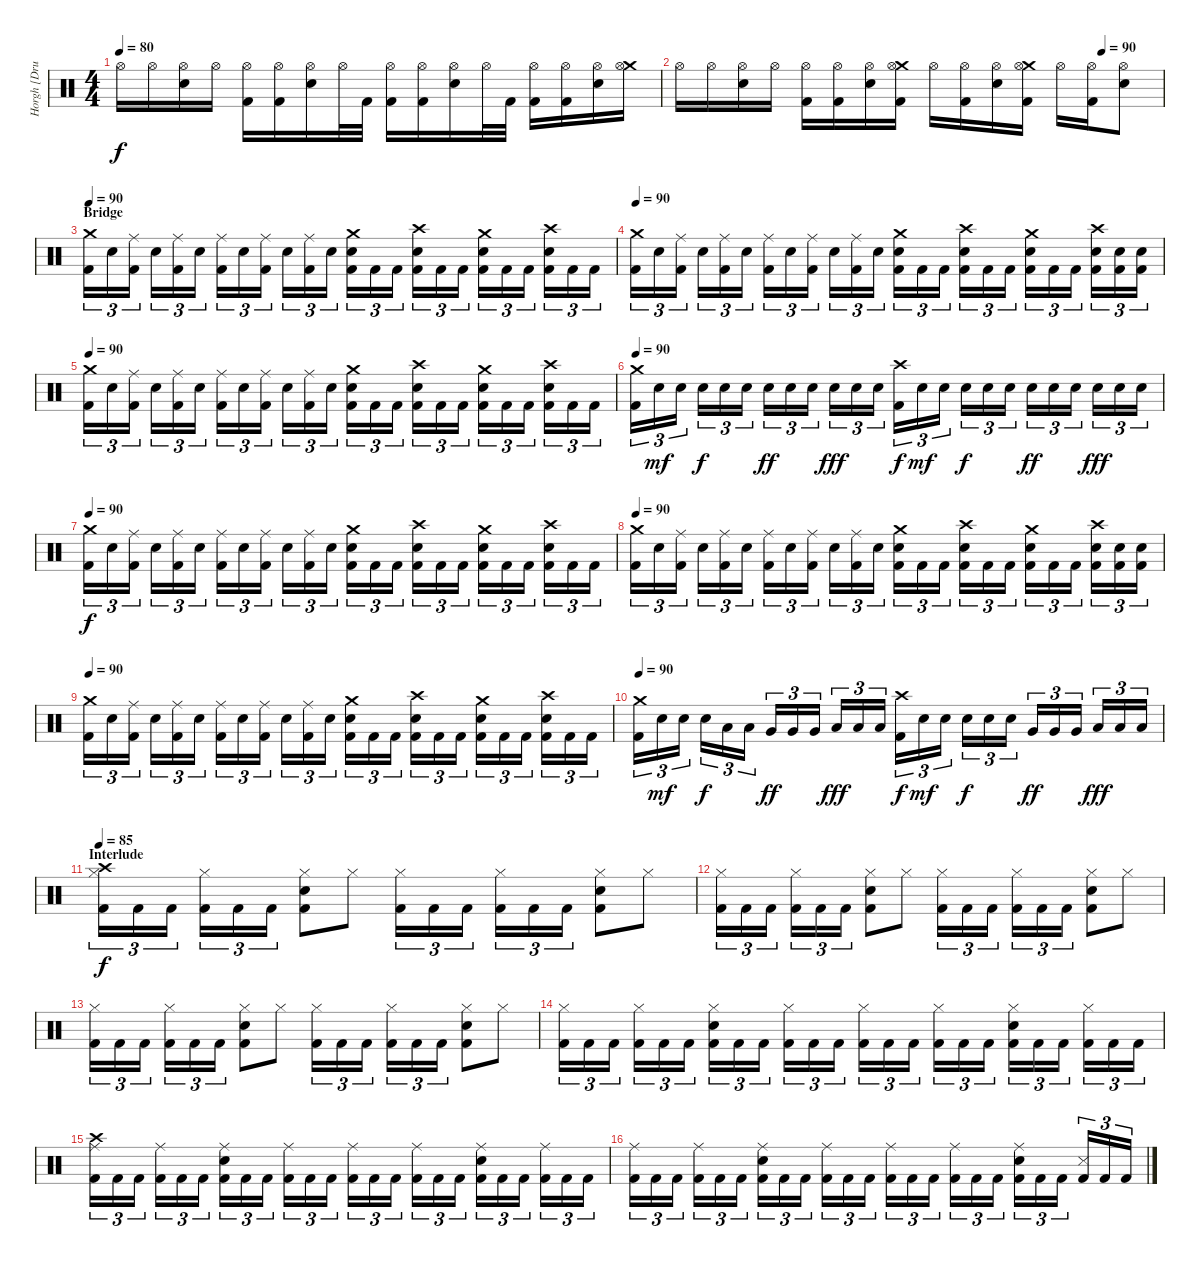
\track ("Horgh [Drums]" "Horgh [Dru") {instrument percussion}
\staff {score}
\articulation defaults
\ts (4 4)
\tempo 80
\clef neutral
\ks c "Hi-Hat (open)".16{dy f} "Hi-Hat (open)".16
("Hi-Hat (open)" "Snare (hit) 2").16 "Hi-Hat (open)".16 ("Hi-Hat (open)" "Kick (hit) 2").16 ("Hi-Hat (open)" "Kick (hit) 2").16 ("Hi-Hat (open)" "Snare (hit) 2").16 "Hi-Hat (open)".32 "Kick (hit) 2".32 ("Hi-Hat (open)" "Kick (hit) 2").16 ("Hi-Hat (open)" "Kick (hit) 2").16 ("Hi-Hat (open)" "Snare (hit) 2").16 "Hi-Hat (open)".32 "Kick (hit) 2".32 ("Hi-Hat (open)" "Kick (hit) 2").16 ("Hi-Hat (open)" "Kick (hit) 2").16 ("Hi-Hat (open)" "Snare (hit) 2").16 ("Crash medium (hit)" "Hi-Hat (open)").16 |
\tempo (90 0.875)
"Hi-Hat (open)".16 "Hi-Hat (open)".16 ("Hi-Hat (open)" "Snare (hit) 2").16 "Hi-Hat (open)".16 ("Hi-Hat (open)" "Kick (hit) 2").16 ("Hi-Hat (open)" "Kick (hit) 2").16 ("Hi-Hat (open)" "Snare (hit) 2").16 ("Crash medium (hit)" "Hi-Hat (open)" "Kick (hit) 2").16 "Hi-Hat (open)".16 ("Hi-Hat (open)" "Kick (hit) 2").16 ("Hi-Hat (open)" "Snare (hit) 2").16 ("Crash medium (hit)" "Hi-Hat (open)" "Kick (hit) 2").16 "Hi-Hat (open)".16 ("Hi-Hat (open)" "Kick (hit) 2").16 ("Hi-Hat (open)" "Snare (hit) 2").8 |
\section ("" "Bridge")
\tempo 90
("Crash medium (hit)" "Kick (hit) 2").16{tu (3 2)} "Snare (hit) 2".16{tu (3 2)} ("Ride (middle)" "Kick (hit) 2").16{tu (3 2)} "Snare (hit) 2".16{tu (3 2)} ("Ride (middle)" "Kick (hit) 2").16{tu (3 2)} "Snare (hit) 2".16{tu (3 2)} ("Ride (middle)" "Kick (hit) 2").16{tu (3 2)} "Snare (hit) 2".16{tu (3 2)} ("Ride (middle)" "Kick (hit) 2").16{tu (3 2)} "Snare (hit) 2".16{tu (3 2)} ("Ride (middle)" "Kick (hit) 2").16{tu (3 2)} "Snare (hit) 2".16{tu (3 2)} ("Crash medium (hit)" "Snare (hit) 2" "Kick (hit) 2").16{tu (3 2)} "Kick (hit) 2".16{tu (3 2)} "Kick (hit) 2".16{tu (3 2)} ("Crash high (hit)" "Snare (hit) 2" "Kick (hit) 2").16{tu (3 2)} "Kick (hit) 2".16{tu (3 2)} "Kick (hit) 2".16{tu (3 2)} ("Crash medium (hit)" "Snare (hit) 2" "Kick (hit) 2").16{tu (3 2)} "Kick (hit) 2".16{tu (3 2)} "Kick (hit) 2".16{tu (3 2)} ("Crash high (hit)" "Snare (hit) 2" "Kick (hit) 2").16{tu (3 2)} "Kick (hit) 2".16{tu (3 2)} "Kick (hit) 2".16{tu (3 2)} |
\tempo 90
("Crash medium (hit)" "Kick (hit) 2").16{tu (3 2)} "Snare (hit) 2".16{tu (3 2)} ("Ride (middle)" "Kick (hit) 2").16{tu (3 2)} "Snare (hit) 2".16{tu (3 2)} ("Ride (middle)" "Kick (hit) 2").16{tu (3 2)} "Snare (hit) 2".16{tu (3 2)} ("Ride (middle)" "Kick (hit) 2").16{tu (3 2)} "Snare (hit) 2".16{tu (3 2)} ("Ride (middle)" "Kick (hit) 2").16{tu (3 2)} "Snare (hit) 2".16{tu (3 2)} ("Ride (middle)" "Kick (hit) 2").16{tu (3 2)} "Snare (hit) 2".16{tu (3 2)} ("Crash medium (hit)" "Snare (hit) 2" "Kick (hit) 2").16{tu (3 2)} "Kick (hit) 2".16{tu (3 2)} "Kick (hit) 2".16{tu (3 2)} ("Crash high (hit)" "Snare (hit) 2" "Kick (hit) 2").16{tu (3 2)} "Kick (hit) 2".16{tu (3 2)} "Kick (hit) 2".16{tu (3 2)} ("Crash medium (hit)" "Snare (hit) 2" "Kick (hit) 2").16{tu (3 2)} "Kick (hit) 2".16{tu (3 2)} "Kick (hit) 2".16{tu (3 2)} ("Crash high (hit)" "Snare (hit) 2" "Kick (hit) 2").16{tu (3 2)} ("Snare (hit) 2" "Kick (hit) 2").16{tu (3 2)} ("Snare (hit) 2" "Kick (hit) 2").16{tu (3 2)} |
\tempo 90
("Crash medium (hit)" "Kick (hit) 2").16{tu (3 2)} "Snare (hit) 2".16{tu (3 2)} ("Ride (middle)" "Kick (hit) 2").16{tu (3 2)} "Snare (hit) 2".16{tu (3 2)} ("Ride (middle)" "Kick (hit) 2").16{tu (3 2)} "Snare (hit) 2".16{tu (3 2)} ("Ride (middle)" "Kick (hit) 2").16{tu (3 2)} "Snare (hit) 2".16{tu (3 2)} ("Ride (middle)" "Kick (hit) 2").16{tu (3 2)} "Snare (hit) 2".16{tu (3 2)} ("Ride (middle)" "Kick (hit) 2").16{tu (3 2)} "Snare (hit) 2".16{tu (3 2)} ("Crash medium (hit)" "Snare (hit) 2" "Kick (hit) 2").16{tu (3 2)} "Kick (hit) 2".16{tu (3 2)} "Kick (hit) 2".16{tu (3 2)} ("Crash high (hit)" "Snare (hit) 2" "Kick (hit) 2").16{tu (3 2)} "Kick (hit) 2".16{tu (3 2)} "Kick (hit) 2".16{tu (3 2)} ("Crash medium (hit)" "Snare (hit) 2" "Kick (hit) 2").16{tu (3 2)} "Kick (hit) 2".16{tu (3 2)} "Kick (hit) 2".16{tu (3 2)} ("Crash high (hit)" "Snare (hit) 2" "Kick (hit) 2").16{tu (3 2)} "Kick (hit) 2".16{tu (3 2)} "Kick (hit) 2".16{tu (3 2)} |
\tempo 90
("Crash medium (hit)" "Kick (hit) 2").16{tu (3 2)} "Snare (hit) 2".16{tu (3 2) dy mf} "Snare (hit) 2".16{tu (3 2)} "Snare (hit) 2".16{tu (3 2) dy f} "Snare (hit) 2".16{tu (3 2)} "Snare (hit) 2".16{tu (3 2)} "Snare (hit) 2".16{tu (3 2) dy ff} "Snare (hit) 2".16{tu (3 2)} "Snare (hit) 2".16{tu (3 2)} "Snare (hit) 2".16{tu (3 2) dy fff} "Snare (hit) 2".16{tu (3 2)} "Snare (hit) 2".16{tu (3 2)} ("Crash high (hit)" "Kick (hit) 2").16{tu (3 2) dy f} "Snare (hit) 2".16{tu (3 2) dy mf} "Snare (hit) 2".16{tu (3 2)} "Snare (hit) 2".16{tu (3 2) dy f} "Snare (hit) 2".16{tu (3 2)} "Snare (hit) 2".16{tu (3 2)} "Snare (hit) 2".16{tu (3 2) dy ff} "Snare (hit) 2".16{tu (3 2)} "Snare (hit) 2".16{tu (3 2)} "Snare (hit) 2".16{tu (3 2) dy fff} "Snare (hit) 2".16{tu (3 2)} "Snare (hit) 2".16{tu (3 2)} |
\tempo 90
("Crash medium (hit)" "Kick (hit) 2").16{tu (3 2) dy f} "Snare (hit) 2".16{tu (3 2)} ("Ride (middle)" "Kick (hit) 2").16{tu (3 2)} "Snare (hit) 2".16{tu (3 2)} ("Ride (middle)" "Kick (hit) 2").16{tu (3 2)} "Snare (hit) 2".16{tu (3 2)} ("Ride (middle)" "Kick (hit) 2").16{tu (3 2)} "Snare (hit) 2".16{tu (3 2)} ("Ride (middle)" "Kick (hit) 2").16{tu (3 2)} "Snare (hit) 2".16{tu (3 2)} ("Ride (middle)" "Kick (hit) 2").16{tu (3 2)} "Snare (hit) 2".16{tu (3 2)} ("Crash medium (hit)" "Snare (hit) 2" "Kick (hit) 2").16{tu (3 2)} "Kick (hit) 2".16{tu (3 2)} "Kick (hit) 2".16{tu (3 2)} ("Crash high (hit)" "Snare (hit) 2" "Kick (hit) 2").16{tu (3 2)} "Kick (hit) 2".16{tu (3 2)} "Kick (hit) 2".16{tu (3 2)} ("Crash medium (hit)" "Snare (hit) 2" "Kick (hit) 2").16{tu (3 2)} "Kick (hit) 2".16{tu (3 2)} "Kick (hit) 2".16{tu (3 2)} ("Crash high (hit)" "Snare (hit) 2" "Kick (hit) 2").16{tu (3 2)} "Kick (hit) 2".16{tu (3 2)} "Kick (hit) 2".16{tu (3 2)} |
\tempo 90
("Crash medium (hit)" "Kick (hit) 2").16{tu (3 2)} "Snare (hit) 2".16{tu (3 2)} ("Ride (middle)" "Kick (hit) 2").16{tu (3 2)} "Snare (hit) 2".16{tu (3 2)} ("Ride (middle)" "Kick (hit) 2").16{tu (3 2)} "Snare (hit) 2".16{tu (3 2)} ("Ride (middle)" "Kick (hit) 2").16{tu (3 2)} "Snare (hit) 2".16{tu (3 2)} ("Ride (middle)" "Kick (hit) 2").16{tu (3 2)} "Snare (hit) 2".16{tu (3 2)} ("Ride (middle)" "Kick (hit) 2").16{tu (3 2)} "Snare (hit) 2".16{tu (3 2)} ("Crash medium (hit)" "Snare (hit) 2" "Kick (hit) 2").16{tu (3 2)} "Kick (hit) 2".16{tu (3 2)} "Kick (hit) 2".16{tu (3 2)} ("Crash high (hit)" "Snare (hit) 2" "Kick (hit) 2").16{tu (3 2)} "Kick (hit) 2".16{tu (3 2)} "Kick (hit) 2".16{tu (3 2)} ("Crash medium (hit)" "Snare (hit) 2" "Kick (hit) 2").16{tu (3 2)} "Kick (hit) 2".16{tu (3 2)} "Kick (hit) 2".16{tu (3 2)} ("Crash high (hit)" "Snare (hit) 2" "Kick (hit) 2").16{tu (3 2)} ("Snare (hit) 2" "Kick (hit) 2").16{tu (3 2)} ("Snare (hit) 2" "Kick (hit) 2").16{tu (3 2)} |
\tempo 90
("Crash medium (hit)" "Kick (hit) 2").16{tu (3 2)} "Snare (hit) 2".16{tu (3 2)} ("Ride (middle)" "Kick (hit) 2").16{tu (3 2)} "Snare (hit) 2".16{tu (3 2)} ("Ride (middle)" "Kick (hit) 2").16{tu (3 2)} "Snare (hit) 2".16{tu (3 2)} ("Ride (middle)" "Kick (hit) 2").16{tu (3 2)} "Snare (hit) 2".16{tu (3 2)} ("Ride (middle)" "Kick (hit) 2").16{tu (3 2)} "Snare (hit) 2".16{tu (3 2)} ("Ride (middle)" "Kick (hit) 2").16{tu (3 2)} "Snare (hit) 2".16{tu (3 2)} ("Crash medium (hit)" "Snare (hit) 2" "Kick (hit) 2").16{tu (3 2)} "Kick (hit) 2".16{tu (3 2)} "Kick (hit) 2".16{tu (3 2)} ("Crash high (hit)" "Snare (hit) 2" "Kick (hit) 2").16{tu (3 2)} "Kick (hit) 2".16{tu (3 2)} "Kick (hit) 2".16{tu (3 2)} ("Crash medium (hit)" "Snare (hit) 2" "Kick (hit) 2").16{tu (3 2)} "Kick (hit) 2".16{tu (3 2)} "Kick (hit) 2".16{tu (3 2)} ("Crash high (hit)" "Snare (hit) 2" "Kick (hit) 2").16{tu (3 2)} "Kick (hit) 2".16{tu (3 2)} "Kick (hit) 2".16{tu (3 2)} |
\tempo 90
("Crash medium (hit)" "Kick (hit) 2").16{tu (3 2)} "Snare (hit) 2".16{tu (3 2) dy mf} "Snare (hit) 2".16{tu (3 2)} "Snare (hit) 2".16{tu (3 2) dy f} "Low Tom (hit)".16{tu (3 2)} "Low Tom (hit)".16{tu (3 2)} "Very Low Tom (hit)".16{tu (3 2) dy ff} "Very Low Tom (hit)".16{tu (3 2)} "Very Low Tom (hit)".16{tu (3 2)} "Low Floor Tom (hit)".16{tu (3 2) dy fff} "Low Floor Tom (hit)".16{tu (3 2)} "Low Floor Tom (hit)".16{tu (3 2)} ("Crash high (hit)" "Kick (hit) 2").16{tu (3 2) dy f} "Snare (hit) 2".16{tu (3 2) dy mf} "Snare (hit) 2".16{tu (3 2)} "Snare (hit) 2".16{tu (3 2) dy f} "Snare (hit) 2".16{tu (3 2)} "Snare (hit) 2".16{tu (3 2)} "Very Low Tom (hit)".16{tu (3 2) dy ff} "Very Low Tom (hit)".16{tu (3 2)} "Very Low Tom (hit)".16{tu (3 2)} "Low Floor Tom (hit)".16{tu (3 2) dy fff} "Low Floor Tom (hit)".16{tu (3 2)} "Low Floor Tom (hit)".16{tu (3 2)} |
\section ("" "Interlude")
\tempo 85
("Crash high (hit)" "Hi-Hat (closed)" "Kick (hit) 2").16{tu (3 2) dy f} "Kick (hit) 2".16{tu (3 2)} "Kick (hit) 2".16{tu (3 2)} ("Hi-Hat (closed)" "Kick (hit) 2").16{tu (3 2)} "Kick (hit) 2".16{tu (3 2)} "Kick (hit) 2".16{tu (3 2)} ("Hi-Hat (closed)" "Snare (hit) 2" "Kick (hit) 2").8 "Hi-Hat (closed)".8 ("Hi-Hat (closed)" "Kick (hit) 2").16{tu (3 2)} "Kick (hit) 2".16{tu (3 2)} "Kick (hit) 2".16{tu (3 2)} ("Hi-Hat (closed)" "Kick (hit) 2").16{tu (3 2)} "Kick (hit) 2".16{tu (3 2)} "Kick (hit) 2".16{tu (3 2)} ("Hi-Hat (closed)" "Snare (hit) 2" "Kick (hit) 2").8 "Hi-Hat (closed)".8 |
("Hi-Hat (closed)" "Kick (hit) 2").16{tu (3 2)} "Kick (hit) 2".16{tu (3 2)} "Kick (hit) 2".16{tu (3 2)} ("Hi-Hat (closed)" "Kick (hit) 2").16{tu (3 2)} "Kick (hit) 2".16{tu (3 2)} "Kick (hit) 2".16{tu (3 2)} ("Hi-Hat (closed)" "Snare (hit) 2" "Kick (hit) 2").8 "Hi-Hat (closed)".8 ("Hi-Hat (closed)" "Kick (hit) 2").16{tu (3 2)} "Kick (hit) 2".16{tu (3 2)} "Kick (hit) 2".16{tu (3 2)} ("Hi-Hat (closed)" "Kick (hit) 2").16{tu (3 2)} "Kick (hit) 2".16{tu (3 2)} "Kick (hit) 2".16{tu (3 2)} ("Hi-Hat (closed)" "Snare (hit) 2" "Kick (hit) 2").8 "Hi-Hat (closed)".8 |
("Hi-Hat (closed)" "Kick (hit) 2").16{tu (3 2)} "Kick (hit) 2".16{tu (3 2)} "Kick (hit) 2".16{tu (3 2)} ("Hi-Hat (closed)" "Kick (hit) 2").16{tu (3 2)} "Kick (hit) 2".16{tu (3 2)} "Kick (hit) 2".16{tu (3 2)} ("Hi-Hat (closed)" "Snare (hit) 2" "Kick (hit) 2").8 "Hi-Hat (closed)".8 ("Hi-Hat (closed)" "Kick (hit) 2").16{tu (3 2)} "Kick (hit) 2".16{tu (3 2)} "Kick (hit) 2".16{tu (3 2)} ("Hi-Hat (closed)" "Kick (hit) 2").16{tu (3 2)} "Kick (hit) 2".16{tu (3 2)} "Kick (hit) 2".16{tu (3 2)} ("Hi-Hat (closed)" "Snare (hit) 2" "Kick (hit) 2").8 "Hi-Hat (closed)".8 |
("Hi-Hat (closed)" "Kick (hit) 2").16{tu (3 2)} "Kick (hit) 2".16{tu (3 2)} "Kick (hit) 2".16{tu (3 2)} ("Hi-Hat (closed)" "Kick (hit) 2").16{tu (3 2)} "Kick (hit) 2".16{tu (3 2)} "Kick (hit) 2".16{tu (3 2)} ("Hi-Hat (closed)" "Snare (hit) 2" "Kick (hit) 2").16{tu (3 2)} "Kick (hit) 2".16{tu (3 2)} "Kick (hit) 2".16{tu (3 2)} ("Hi-Hat (closed)" "Kick (hit) 2").16{tu (3 2)} "Kick (hit) 2".16{tu (3 2)} "Kick (hit) 2".16{tu (3 2)} ("Hi-Hat (closed)" "Kick (hit) 2").16{tu (3 2)} "Kick (hit) 2".16{tu (3 2)} "Kick (hit) 2".16{tu (3 2)} ("Hi-Hat (closed)" "Kick (hit) 2").16{tu (3 2)} "Kick (hit) 2".16{tu (3 2)} "Kick (hit) 2".16{tu (3 2)} ("Hi-Hat (closed)" "Snare (hit) 2" "Kick (hit) 2").16{tu (3 2)} "Kick (hit) 2".16{tu (3 2)} "Kick (hit) 2".16{tu (3 2)} ("Hi-Hat (closed)" "Kick (hit) 2").16{tu (3 2)} "Kick (hit) 2".16{tu (3 2)} "Kick (hit) 2".16{tu (3 2)} |
("Crash high (hit)" "Ride (middle)" "Kick (hit) 2").16{tu (3 2)} "Kick (hit) 2".16{tu (3 2)} "Kick (hit) 2".16{tu (3 2)} ("Ride (middle)" "Kick (hit) 2").16{tu (3 2)} "Kick (hit) 2".16{tu (3 2)} "Kick (hit) 2".16{tu (3 2)} ("Ride (middle)" "Snare (hit) 2" "Kick (hit) 2").16{tu (3 2)} "Kick (hit) 2".16{tu (3 2)} "Kick (hit) 2".16{tu (3 2)} ("Ride (middle)" "Kick (hit) 2").16{tu (3 2)} "Kick (hit) 2".16{tu (3 2)} "Kick (hit) 2".16{tu (3 2)} ("Ride (middle)" "Kick (hit) 2").16{tu (3 2)} "Kick (hit) 2".16{tu (3 2)} "Kick (hit) 2".16{tu (3 2)} ("Ride (middle)" "Kick (hit) 2").16{tu (3 2)} "Kick (hit) 2".16{tu (3 2)} "Kick (hit) 2".16{tu (3 2)} ("Ride (middle)" "Snare (hit) 2" "Kick (hit) 2").16{tu (3 2)} "Kick (hit) 2".16{tu (3 2)} "Kick (hit) 2".16{tu (3 2)} ("Ride (middle)" "Kick (hit) 2").16{tu (3 2)} "Kick (hit) 2".16{tu (3 2)} "Kick (hit) 2".16{tu (3 2)} |
("Ride (middle)" "Kick (hit) 2").16{tu (3 2)} "Kick (hit) 2".16{tu (3 2)} "Kick (hit) 2".16{tu (3 2)} ("Ride (middle)" "Kick (hit) 2").16{tu (3 2)} "Kick (hit) 2".16{tu (3 2)} "Kick (hit) 2".16{tu (3 2)} ("Ride (middle)" "Snare (hit) 2" "Kick (hit) 2").16{tu (3 2)} "Kick (hit) 2".16{tu (3 2)} "Kick (hit) 2".16{tu (3 2)} ("Ride (middle)" "Kick (hit) 2").16{tu (3 2)} "Kick (hit) 2".16{tu (3 2)} "Kick (hit) 2".16{tu (3 2)} ("Ride (middle)" "Kick (hit) 2").16{tu (3 2)} "Kick (hit) 2".16{tu (3 2)} "Kick (hit) 2".16{tu (3 2)} ("Ride (middle)" "Kick (hit) 2").16{tu (3 2)} "Kick (hit) 2".16{tu (3 2)} "Kick (hit) 2".16{tu (3 2)} ("Ride (middle)" "Snare (hit) 2" "Kick (hit) 2").16{tu (3 2)} "Kick (hit) 2".16{tu (3 2)} "Kick (hit) 2".16{tu (3 2)} ("Snare (side stick) 3" "Kick (hit) 2").16{tu (3 2)} "Kick (hit) 2".16{tu (3 2)} "Kick (hit) 2".16{tu (3 2)}
